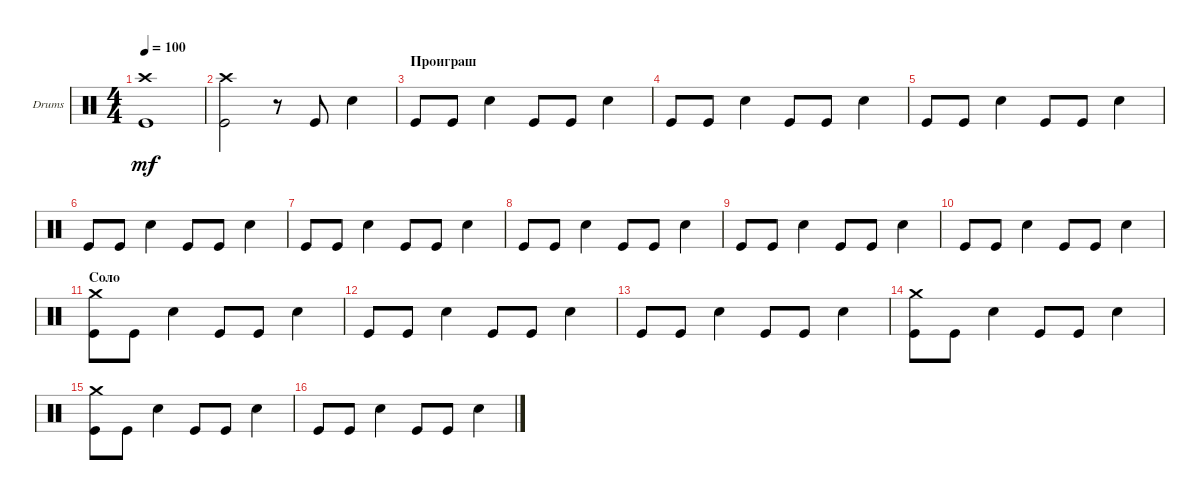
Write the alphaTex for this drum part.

\defaultSystemsLayout 4
\bracketExtendMode groupsimilarinstruments
\firstSystemTrackNameOrientation horizontal
\otherSystemsTrackNameOrientation horizontal
\track ("Е. Кулаков" "Drums") {instrument percussion}
\staff {score}
\articulation defaults
\ts (4 4)
\tempo 100
\clef neutral
\ks c
("Kick (hit)" "Crash high (hit)").1{dy mf} |
("Kick (hit)" "Crash high (hit)").2 r.8 "Kick (hit)".8 "Snare (hit) 2".4 |
\section ("" "Проиграш")
"Kick (hit)".8 "Kick (hit)".8 "Snare (hit) 2".4 "Kick (hit)".8 "Kick (hit)".8 "Snare (hit) 2".4 |
"Kick (hit)".8 "Kick (hit)".8 "Snare (hit) 2".4 "Kick (hit)".8 "Kick (hit)".8 "Snare (hit) 2".4 |
"Kick (hit)".8 "Kick (hit)".8 "Snare (hit) 2".4 "Kick (hit)".8 "Kick (hit)".8 "Snare (hit) 2".4 |
"Kick (hit)".8 "Kick (hit)".8 "Snare (hit) 2".4 "Kick (hit)".8 "Kick (hit)".8 "Snare (hit) 2".4 |
"Kick (hit)".8 "Kick (hit)".8 "Snare (hit) 2".4 "Kick (hit)".8 "Kick (hit)".8 "Snare (hit) 2".4 |
"Kick (hit)".8 "Kick (hit)".8 "Snare (hit) 2".4 "Kick (hit)".8 "Kick (hit)".8 "Snare (hit) 2".4 |
"Kick (hit)".8 "Kick (hit)".8 "Snare (hit) 2".4 "Kick (hit)".8 "Kick (hit)".8 "Snare (hit) 2".4 |
"Kick (hit)".8 "Kick (hit)".8 "Snare (hit) 2".4 "Kick (hit)".8 "Kick (hit)".8 "Snare (hit) 2".4 |
\section ("" "Соло")
("Kick (hit)" "Crash medium (hit)").8 "Kick (hit)".8 "Snare (hit) 2".4 "Kick (hit)".8 "Kick (hit)".8 "Snare (hit) 2".4 |
"Kick (hit)".8 "Kick (hit)".8 "Snare (hit) 2".4 "Kick (hit)".8 "Kick (hit)".8 "Snare (hit) 2".4 |
"Kick (hit)".8 "Kick (hit)".8 "Snare (hit) 2".4 "Kick (hit)".8 "Kick (hit)".8 "Snare (hit) 2".4 |
("Kick (hit)" "Crash medium (hit)").8 "Kick (hit)".8 "Snare (hit) 2".4 "Kick (hit)".8 "Kick (hit)".8 "Snare (hit) 2".4 |
("Kick (hit)" "Crash medium (hit)").8 "Kick (hit)".8 "Snare (hit) 2".4 "Kick (hit)".8 "Kick (hit)".8 "Snare (hit) 2".4 |
"Kick (hit)".8 "Kick (hit)".8 "Snare (hit) 2".4 "Kick (hit)".8 "Kick (hit)".8 "Snare (hit) 2".4
